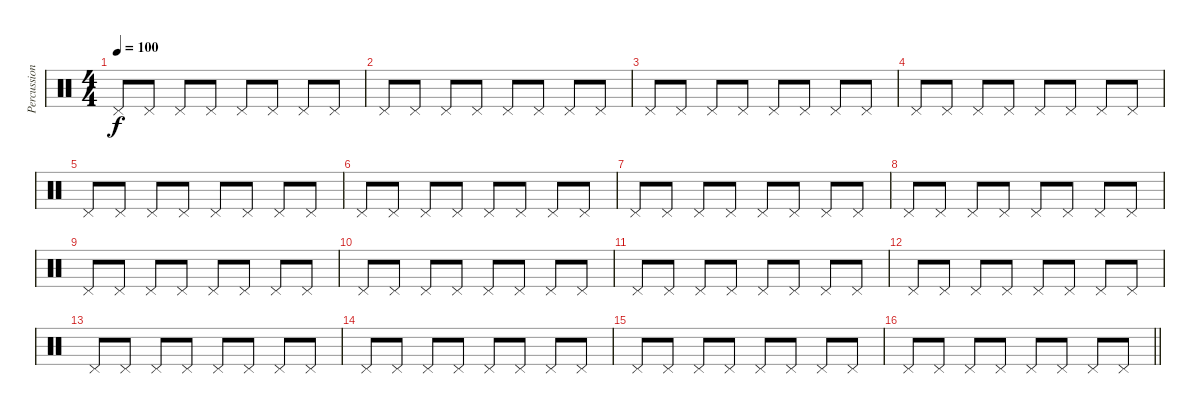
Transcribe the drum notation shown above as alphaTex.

\track ("Percussions" "Percussion") {instrument percussion}
\staff {score}
\articulation defaults
\ts (4 4)
\tempo 100
\clef neutral
\ks c "Pedal Hi-Hat (hit)".8{dy f} "Pedal Hi-Hat (hit)".8 "Pedal Hi-Hat (hit)".8 "Pedal Hi-Hat (hit)".8 "Pedal Hi-Hat (hit)".8 "Pedal Hi-Hat (hit)".8 "Pedal Hi-Hat (hit)".8 "Pedal Hi-Hat (hit)".8
|
"Pedal Hi-Hat (hit)".8 "Pedal Hi-Hat (hit)".8 "Pedal Hi-Hat (hit)".8 "Pedal Hi-Hat (hit)".8 "Pedal Hi-Hat (hit)".8 "Pedal Hi-Hat (hit)".8 "Pedal Hi-Hat (hit)".8 "Pedal Hi-Hat (hit)".8 |
"Pedal Hi-Hat (hit)".8 "Pedal Hi-Hat (hit)".8 "Pedal Hi-Hat (hit)".8 "Pedal Hi-Hat (hit)".8 "Pedal Hi-Hat (hit)".8 "Pedal Hi-Hat (hit)".8 "Pedal Hi-Hat (hit)".8 "Pedal Hi-Hat (hit)".8 |
"Pedal Hi-Hat (hit)".8 "Pedal Hi-Hat (hit)".8 "Pedal Hi-Hat (hit)".8 "Pedal Hi-Hat (hit)".8 "Pedal Hi-Hat (hit)".8 "Pedal Hi-Hat (hit)".8 "Pedal Hi-Hat (hit)".8 "Pedal Hi-Hat (hit)".8 |
"Pedal Hi-Hat (hit)".8 "Pedal Hi-Hat (hit)".8 "Pedal Hi-Hat (hit)".8 "Pedal Hi-Hat (hit)".8 "Pedal Hi-Hat (hit)".8 "Pedal Hi-Hat (hit)".8 "Pedal Hi-Hat (hit)".8 "Pedal Hi-Hat (hit)".8 |
"Pedal Hi-Hat (hit)".8 "Pedal Hi-Hat (hit)".8 "Pedal Hi-Hat (hit)".8 "Pedal Hi-Hat (hit)".8 "Pedal Hi-Hat (hit)".8 "Pedal Hi-Hat (hit)".8 "Pedal Hi-Hat (hit)".8 "Pedal Hi-Hat (hit)".8 |
"Pedal Hi-Hat (hit)".8 "Pedal Hi-Hat (hit)".8 "Pedal Hi-Hat (hit)".8 "Pedal Hi-Hat (hit)".8 "Pedal Hi-Hat (hit)".8 "Pedal Hi-Hat (hit)".8 "Pedal Hi-Hat (hit)".8 "Pedal Hi-Hat (hit)".8 |
"Pedal Hi-Hat (hit)".8 "Pedal Hi-Hat (hit)".8 "Pedal Hi-Hat (hit)".8 "Pedal Hi-Hat (hit)".8 "Pedal Hi-Hat (hit)".8 "Pedal Hi-Hat (hit)".8 "Pedal Hi-Hat (hit)".8 "Pedal Hi-Hat (hit)".8 |
"Pedal Hi-Hat (hit)".8 "Pedal Hi-Hat (hit)".8 "Pedal Hi-Hat (hit)".8 "Pedal Hi-Hat (hit)".8 "Pedal Hi-Hat (hit)".8 "Pedal Hi-Hat (hit)".8 "Pedal Hi-Hat (hit)".8 "Pedal Hi-Hat (hit)".8 |
"Pedal Hi-Hat (hit)".8 "Pedal Hi-Hat (hit)".8 "Pedal Hi-Hat (hit)".8 "Pedal Hi-Hat (hit)".8 "Pedal Hi-Hat (hit)".8 "Pedal Hi-Hat (hit)".8 "Pedal Hi-Hat (hit)".8 "Pedal Hi-Hat (hit)".8 |
"Pedal Hi-Hat (hit)".8 "Pedal Hi-Hat (hit)".8 "Pedal Hi-Hat (hit)".8 "Pedal Hi-Hat (hit)".8 "Pedal Hi-Hat (hit)".8 "Pedal Hi-Hat (hit)".8 "Pedal Hi-Hat (hit)".8 "Pedal Hi-Hat (hit)".8 |
"Pedal Hi-Hat (hit)".8 "Pedal Hi-Hat (hit)".8 "Pedal Hi-Hat (hit)".8 "Pedal Hi-Hat (hit)".8 "Pedal Hi-Hat (hit)".8 "Pedal Hi-Hat (hit)".8 "Pedal Hi-Hat (hit)".8 "Pedal Hi-Hat (hit)".8 |
"Pedal Hi-Hat (hit)".8 "Pedal Hi-Hat (hit)".8 "Pedal Hi-Hat (hit)".8 "Pedal Hi-Hat (hit)".8 "Pedal Hi-Hat (hit)".8 "Pedal Hi-Hat (hit)".8 "Pedal Hi-Hat (hit)".8 "Pedal Hi-Hat (hit)".8 |
"Pedal Hi-Hat (hit)".8 "Pedal Hi-Hat (hit)".8 "Pedal Hi-Hat (hit)".8 "Pedal Hi-Hat (hit)".8 "Pedal Hi-Hat (hit)".8 "Pedal Hi-Hat (hit)".8 "Pedal Hi-Hat (hit)".8 "Pedal Hi-Hat (hit)".8 |
"Pedal Hi-Hat (hit)".8 "Pedal Hi-Hat (hit)".8 "Pedal Hi-Hat (hit)".8 "Pedal Hi-Hat (hit)".8 "Pedal Hi-Hat (hit)".8 "Pedal Hi-Hat (hit)".8 "Pedal Hi-Hat (hit)".8 "Pedal Hi-Hat (hit)".8 |
\barLineRight lightlight "Pedal Hi-Hat (hit)".8 "Pedal Hi-Hat (hit)".8 "Pedal Hi-Hat (hit)".8 "Pedal Hi-Hat (hit)".8 "Pedal Hi-Hat (hit)".8 "Pedal Hi-Hat (hit)".8 "Pedal Hi-Hat (hit)".8 "Pedal Hi-Hat (hit)".8
